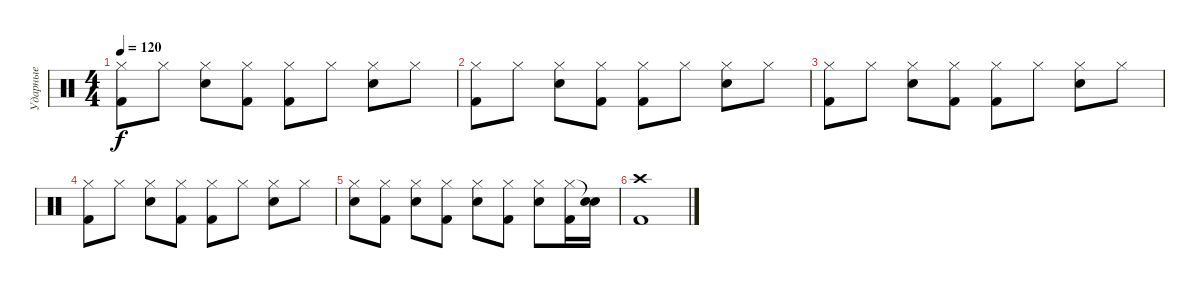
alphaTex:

\track ("Ударные" "Ударные") {instrument percussion}
\staff
\articulation defaults
\ts (4 4)
\tempo 120
\clef neutral
\ks c
("Hi-Hat (closed)" "Kick (hit) 2").8{dy f} "Hi-Hat (closed)".8 ("Hi-Hat (closed)" "Snare (hit) 2").8 ("Hi-Hat (closed)" "Kick (hit) 2").8 ("Hi-Hat (closed)" "Kick (hit) 2").8 "Hi-Hat (closed)".8 ("Hi-Hat (closed)" "Snare (hit) 2").8 "Hi-Hat (closed)".8 |
("Hi-Hat (closed)" "Kick (hit) 2").8 "Hi-Hat (closed)".8 ("Hi-Hat (closed)" "Snare (hit) 2").8 ("Hi-Hat (closed)" "Kick (hit) 2").8 ("Hi-Hat (closed)" "Kick (hit) 2").8 "Hi-Hat (closed)".8 ("Hi-Hat (closed)" "Snare (hit) 2").8 "Hi-Hat (closed)".8 |
("Hi-Hat (closed)" "Kick (hit) 2").8 "Hi-Hat (closed)".8 ("Hi-Hat (closed)" "Snare (hit) 2").8 ("Hi-Hat (closed)" "Kick (hit) 2").8 ("Hi-Hat (closed)" "Kick (hit) 2").8 "Hi-Hat (closed)".8 ("Hi-Hat (closed)" "Snare (hit) 2").8 "Hi-Hat (closed)".8 |
("Hi-Hat (closed)" "Kick (hit) 2").8 "Hi-Hat (closed)".8 ("Hi-Hat (closed)" "Snare (hit) 2").8 ("Hi-Hat (closed)" "Kick (hit) 2").8 ("Hi-Hat (closed)" "Kick (hit) 2").8 "Hi-Hat (closed)".8 ("Hi-Hat (closed)" "Snare (hit) 2").8 "Hi-Hat (closed)".8 |
("Hi-Hat (closed)" "Snare (hit) 2").8 ("Hi-Hat (closed)" "Kick (hit) 2").8 ("Hi-Hat (closed)" "Snare (hit) 2").8 ("Hi-Hat (closed)" "Kick (hit) 2").8 ("Hi-Hat (closed)" "Snare (hit) 2").8 ("Hi-Hat (closed)" "Kick (hit) 2").8 ("Hi-Hat (closed)" "Snare (hit) 2").8 ("Hi-Hat (closed)" "Kick (hit) 2").16 ("Snare (hit)"{t} "Snare (hit) 2").16 |
("Crash high (hit)" "Kick (hit) 2").1
